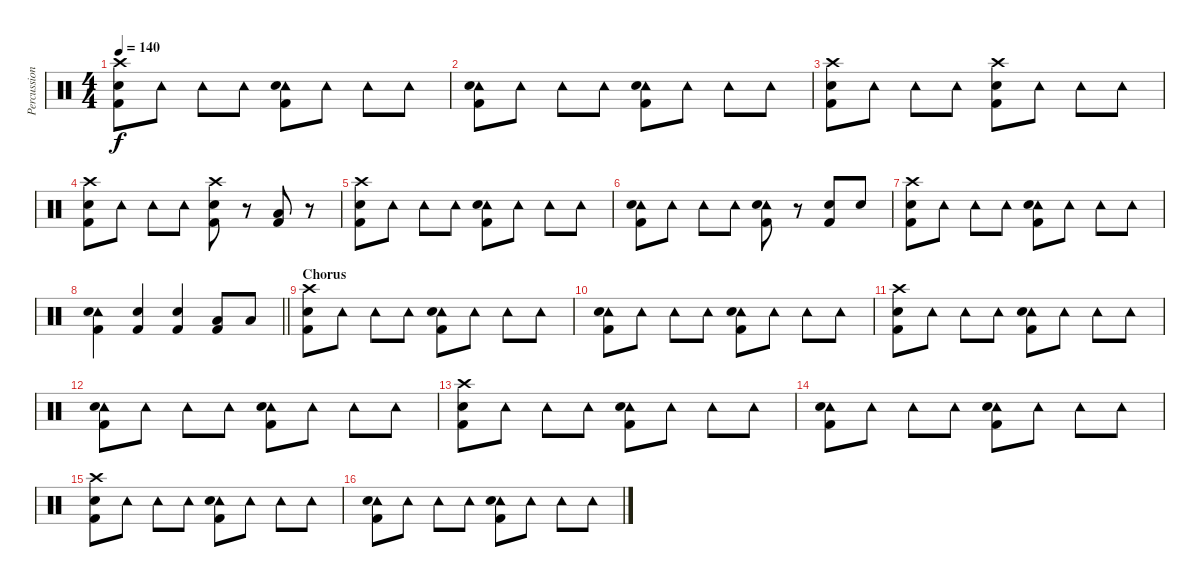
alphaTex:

\track ("Percussion" "Percussion") {instrument percussion}
\staff {score}
\articulation defaults
\ts (4 4)
\tempo 140
\clef neutral
\ks c
("Crash high (hit)" "Snare (hit) 2" "Kick (hit) 2").8{dy f} "Tambourine (hit)".8 "Tambourine (hit)".8 "Tambourine (hit)".8 ("Tambourine (hit)" "Snare (hit) 2" "Kick (hit) 2").8 "Tambourine (hit)".8 "Tambourine (hit)".8 "Tambourine (hit)".8 |
("Tambourine (hit)" "Snare (hit) 2" "Kick (hit) 2").8 "Tambourine (hit)".8 "Tambourine (hit)".8 "Tambourine (hit)".8 ("Tambourine (hit)" "Snare (hit) 2" "Kick (hit) 2").8 "Tambourine (hit)".8 "Tambourine (hit)".8 "Tambourine (hit)".8 |
("Crash high (hit)" "Snare (hit) 2" "Kick (hit) 2").8 "Tambourine (hit)".8 "Tambourine (hit)".8 "Tambourine (hit)".8 ("Crash high (hit)" "Snare (hit) 2" "Kick (hit) 2").8 "Tambourine (hit)".8 "Tambourine (hit)".8 "Tambourine (hit)".8 |
("Crash high (hit)" "Snare (hit) 2" "Kick (hit) 2").8 "Tambourine (hit)".8 "Tambourine (hit)".8 "Tambourine (hit)".8 ("Crash high (hit)" "Snare (hit) 2" "Kick (hit) 2").8 r.8 ("Low Tom (hit)" "Kick (hit) 2").8 r.8 |
("Crash high (hit)" "Snare (hit) 2" "Kick (hit) 2").8 "Tambourine (hit)".8 "Tambourine (hit)".8 "Tambourine (hit)".8 ("Tambourine (hit)" "Snare (hit) 2" "Kick (hit) 2").8 "Tambourine (hit)".8 "Tambourine (hit)".8 "Tambourine (hit)".8 |
("Tambourine (hit)" "Snare (hit) 2" "Kick (hit) 2").8 "Tambourine (hit)".8 "Tambourine (hit)".8 "Tambourine (hit)".8 ("Tambourine (hit)" "Snare (hit) 2" "Kick (hit) 2").8 r.8 ("Snare (hit) 2" "Kick (hit) 2").8 "Snare (hit) 2".8 |
("Crash high (hit)" "Snare (hit) 2" "Kick (hit) 2").8 "Tambourine (hit)".8 "Tambourine (hit)".8 "Tambourine (hit)".8 ("Tambourine (hit)" "Snare (hit) 2" "Kick (hit) 2").8 "Tambourine (hit)".8 "Tambourine (hit)".8 "Tambourine (hit)".8 |
\barLineRight lightlight
("Tambourine (hit)" "Snare (hit) 2" "Kick (hit) 2").4 ("Snare (hit) 2" "Kick (hit) 2").4 ("Snare (hit) 2" "Kick (hit) 2").4 ("Low Tom (hit)" "Kick (hit) 2").8 "Low Tom (hit)".8 |
\section ("" "Chorus")
("Crash high (hit)" "Snare (hit) 2" "Kick (hit) 2").8 "Tambourine (hit)".8 "Tambourine (hit)".8 "Tambourine (hit)".8 ("Tambourine (hit)" "Snare (hit) 2" "Kick (hit) 2").8 "Tambourine (hit)".8 "Tambourine (hit)".8 "Tambourine (hit)".8 |
("Tambourine (hit)" "Snare (hit) 2" "Kick (hit) 2").8 "Tambourine (hit)".8 "Tambourine (hit)".8 "Tambourine (hit)".8 ("Tambourine (hit)" "Snare (hit) 2" "Kick (hit) 2").8 "Tambourine (hit)".8 "Tambourine (hit)".8 "Tambourine (hit)".8 |
("Crash high (hit)" "Snare (hit) 2" "Kick (hit) 2").8 "Tambourine (hit)".8 "Tambourine (hit)".8 "Tambourine (hit)".8 ("Tambourine (hit)" "Snare (hit) 2" "Kick (hit) 2").8 "Tambourine (hit)".8 "Tambourine (hit)".8 "Tambourine (hit)".8 |
("Tambourine (hit)" "Snare (hit) 2" "Kick (hit) 2").8 "Tambourine (hit)".8 "Tambourine (hit)".8 "Tambourine (hit)".8 ("Tambourine (hit)" "Snare (hit) 2" "Kick (hit) 2").8 "Tambourine (hit)".8 "Tambourine (hit)".8 "Tambourine (hit)".8 |
("Crash high (hit)" "Snare (hit) 2" "Kick (hit) 2").8 "Tambourine (hit)".8 "Tambourine (hit)".8 "Tambourine (hit)".8 ("Tambourine (hit)" "Snare (hit) 2" "Kick (hit) 2").8 "Tambourine (hit)".8 "Tambourine (hit)".8 "Tambourine (hit)".8 |
("Tambourine (hit)" "Snare (hit) 2" "Kick (hit) 2").8 "Tambourine (hit)".8 "Tambourine (hit)".8 "Tambourine (hit)".8 ("Tambourine (hit)" "Snare (hit) 2" "Kick (hit) 2").8 "Tambourine (hit)".8 "Tambourine (hit)".8 "Tambourine (hit)".8 |
("Crash high (hit)" "Snare (hit) 2" "Kick (hit) 2").8 "Tambourine (hit)".8 "Tambourine (hit)".8 "Tambourine (hit)".8 ("Tambourine (hit)" "Snare (hit) 2" "Kick (hit) 2").8 "Tambourine (hit)".8 "Tambourine (hit)".8 "Tambourine (hit)".8 |
("Tambourine (hit)" "Snare (hit) 2" "Kick (hit) 2").8 "Tambourine (hit)".8 "Tambourine (hit)".8 "Tambourine (hit)".8 ("Tambourine (hit)" "Snare (hit) 2" "Kick (hit) 2").8 "Tambourine (hit)".8 "Tambourine (hit)".8 "Tambourine (hit)".8
